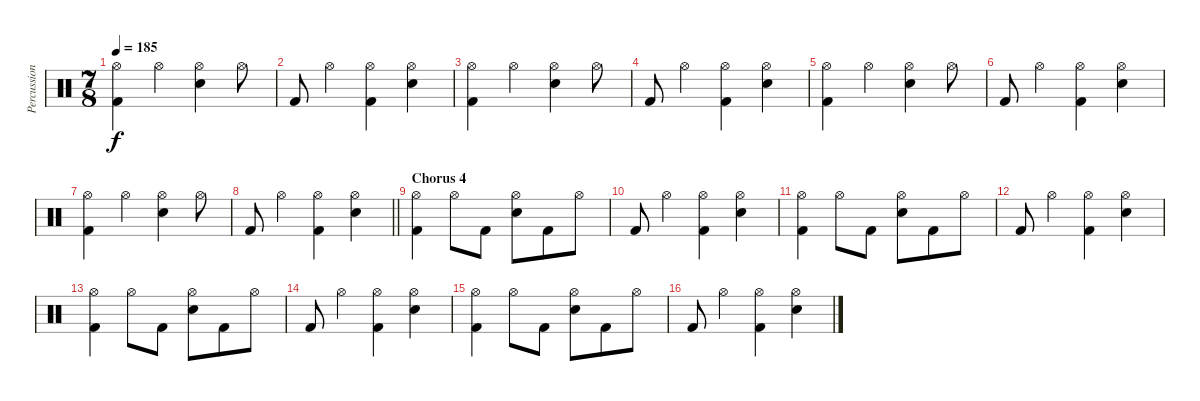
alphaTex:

\track ("Percussion" "Percussion") {instrument percussion}
\staff {score}
\articulation defaults
\ts (7 8)
\tempo 185
\clef neutral
\ks c
("Hi-Hat (open)" "Kick (hit) 2").4{dy f} "Hi-Hat (open)".4 ("Hi-Hat (open)" "Snare (hit) 2").4 "Hi-Hat (open)".8 |
"Kick (hit) 2".8 "Hi-Hat (open)".4 ("Hi-Hat (open)" "Kick (hit) 2").4 ("Hi-Hat (open)" "Snare (hit) 2").4 |
("Hi-Hat (open)" "Kick (hit) 2").4 "Hi-Hat (open)".4 ("Hi-Hat (open)" "Snare (hit) 2").4 "Hi-Hat (open)".8 |
"Kick (hit) 2".8 "Hi-Hat (open)".4 ("Hi-Hat (open)" "Kick (hit) 2").4 ("Hi-Hat (open)" "Snare (hit) 2").4 |
("Hi-Hat (open)" "Kick (hit) 2").4 "Hi-Hat (open)".4 ("Hi-Hat (open)" "Snare (hit) 2").4 "Hi-Hat (open)".8 |
"Kick (hit) 2".8 "Hi-Hat (open)".4 ("Hi-Hat (open)" "Kick (hit) 2").4 ("Hi-Hat (open)" "Snare (hit) 2").4 |
("Hi-Hat (open)" "Kick (hit) 2").4 "Hi-Hat (open)".4 ("Hi-Hat (open)" "Snare (hit) 2").4 "Hi-Hat (open)".8 |
\barLineRight lightlight "Kick (hit) 2".8 "Hi-Hat (open)".4
("Hi-Hat (open)" "Kick (hit) 2").4 ("Hi-Hat (open)" "Snare (hit) 2").4 |
\section ("" "Chorus 4")
("Hi-Hat (open)" "Kick (hit) 2").4 "Hi-Hat (open)".8 "Kick (hit) 2".8 ("Hi-Hat (open)" "Snare (hit) 2").8 "Kick (hit) 2".8 "Hi-Hat (open)".8 |
"Kick (hit) 2".8 "Hi-Hat (open)".4 ("Hi-Hat (open)" "Kick (hit) 2").4 ("Hi-Hat (open)" "Snare (hit) 2").4 |
("Hi-Hat (open)" "Kick (hit) 2").4 "Hi-Hat (open)".8 "Kick (hit) 2".8 ("Hi-Hat (open)" "Snare (hit) 2").8 "Kick (hit) 2".8 "Hi-Hat (open)".8 |
"Kick (hit) 2".8 "Hi-Hat (open)".4 ("Hi-Hat (open)" "Kick (hit) 2").4 ("Hi-Hat (open)" "Snare (hit) 2").4 |
("Hi-Hat (open)" "Kick (hit) 2").4 "Hi-Hat (open)".8 "Kick (hit) 2".8 ("Hi-Hat (open)" "Snare (hit) 2").8 "Kick (hit) 2".8 "Hi-Hat (open)".8 |
"Kick (hit) 2".8 "Hi-Hat (open)".4 ("Hi-Hat (open)" "Kick (hit) 2").4 ("Hi-Hat (open)" "Snare (hit) 2").4 |
("Hi-Hat (open)" "Kick (hit) 2").4 "Hi-Hat (open)".8 "Kick (hit) 2".8 ("Hi-Hat (open)" "Snare (hit) 2").8 "Kick (hit) 2".8 "Hi-Hat (open)".8 |
"Kick (hit) 2".8 "Hi-Hat (open)".4 ("Hi-Hat (open)" "Kick (hit) 2").4 ("Hi-Hat (open)" "Snare (hit) 2").4
